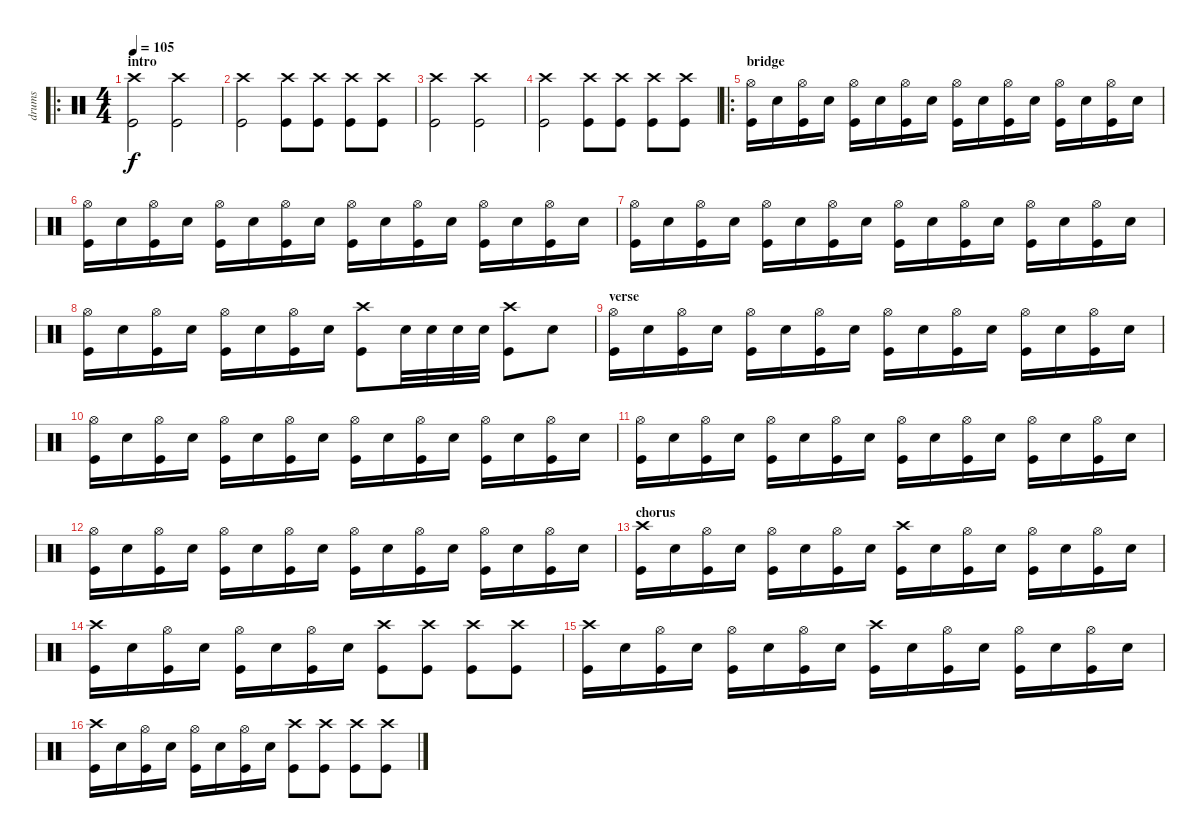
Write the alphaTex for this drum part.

\track ("drums" "drums") {instrument percussion}
\staff {score}
\articulation defaults
\ro
\ts (4 4)
\section ("" "intro")
\tempo 105
\clef neutral
\ks c
("Crash high (hit)" "Kick (hit)").2{dy f} ("Crash high (hit)" "Kick (hit)").2 |
("Crash high (hit)" "Kick (hit)").2 ("Crash high (hit)" "Kick (hit)").8 ("Crash high (hit)" "Kick (hit)").8 ("Crash high (hit)" "Kick (hit)").8 ("Crash high (hit)" "Kick (hit)").8 |
("Crash high (hit)" "Kick (hit)").2 ("Crash high (hit)" "Kick (hit)").2 |
("Crash high (hit)" "Kick (hit)").2 ("Crash high (hit)" "Kick (hit)").8 ("Crash high (hit)" "Kick (hit)").8 ("Crash high (hit)" "Kick (hit)").8 ("Crash high (hit)" "Kick (hit)").8 |
\ro
\section ("" "bridge")
("Hi-Hat (open)" "Kick (hit)").16 "Electric Snare (hit)".16 ("Hi-Hat (open)" "Kick (hit)").16 "Electric Snare (hit)".16 ("Hi-Hat (open)" "Kick (hit)").16 "Electric Snare (hit)".16 ("Hi-Hat (open)" "Kick (hit)").16 "Electric Snare (hit)".16 ("Hi-Hat (open)" "Kick (hit)").16 "Electric Snare (hit)".16 ("Hi-Hat (open)" "Kick (hit)").16 "Electric Snare (hit)".16 ("Hi-Hat (open)" "Kick (hit)").16 "Electric Snare (hit)".16 ("Hi-Hat (open)" "Kick (hit)").16 "Electric Snare (hit)".16 |
("Hi-Hat (open)" "Kick (hit)").16 "Electric Snare (hit)".16 ("Hi-Hat (open)" "Kick (hit)").16 "Electric Snare (hit)".16 ("Hi-Hat (open)" "Kick (hit)").16 "Electric Snare (hit)".16 ("Hi-Hat (open)" "Kick (hit)").16 "Electric Snare (hit)".16 ("Hi-Hat (open)" "Kick (hit)").16 "Electric Snare (hit)".16 ("Hi-Hat (open)" "Kick (hit)").16 "Electric Snare (hit)".16 ("Hi-Hat (open)" "Kick (hit)").16 "Electric Snare (hit)".16 ("Hi-Hat (open)" "Kick (hit)").16 "Electric Snare (hit)".16 |
("Hi-Hat (open)" "Kick (hit)").16 "Electric Snare (hit)".16 ("Hi-Hat (open)" "Kick (hit)").16 "Electric Snare (hit)".16 ("Hi-Hat (open)" "Kick (hit)").16 "Electric Snare (hit)".16 ("Hi-Hat (open)" "Kick (hit)").16 "Electric Snare (hit)".16 ("Hi-Hat (open)" "Kick (hit)").16 "Electric Snare (hit)".16 ("Hi-Hat (open)" "Kick (hit)").16 "Electric Snare (hit)".16 ("Hi-Hat (open)" "Kick (hit)").16 "Electric Snare (hit)".16 ("Hi-Hat (open)" "Kick (hit)").16 "Electric Snare (hit)".16 |
("Hi-Hat (open)" "Kick (hit)").16 "Electric Snare (hit)".16 ("Hi-Hat (open)" "Kick (hit)").16 "Electric Snare (hit)".16 ("Hi-Hat (open)" "Kick (hit)").16 "Electric Snare (hit)".16 ("Hi-Hat (open)" "Kick (hit)").16 "Electric Snare (hit)".16 ("Crash high (hit)" "Kick (hit)").8 "Electric Snare (hit)".32 "Electric Snare (hit)".32 "Electric Snare (hit)".32 "Electric Snare (hit)".32 ("Crash high (hit)" "Kick (hit)").8 "Electric Snare (hit)".8 |
\section ("" "verse")
("Hi-Hat (open)" "Kick (hit)").16 "Electric Snare (hit)".16 ("Hi-Hat (open)" "Kick (hit)").16 "Electric Snare (hit)".16 ("Hi-Hat (open)" "Kick (hit)").16 "Electric Snare (hit)".16 ("Hi-Hat (open)" "Kick (hit)").16 "Electric Snare (hit)".16 ("Hi-Hat (open)" "Kick (hit)").16 "Electric Snare (hit)".16 ("Hi-Hat (open)" "Kick (hit)").16 "Electric Snare (hit)".16 ("Hi-Hat (open)" "Kick (hit)").16 "Electric Snare (hit)".16 ("Hi-Hat (open)" "Kick (hit)").16 "Electric Snare (hit)".16 |
("Hi-Hat (open)" "Kick (hit)").16 "Electric Snare (hit)".16 ("Hi-Hat (open)" "Kick (hit)").16 "Electric Snare (hit)".16 ("Hi-Hat (open)" "Kick (hit)").16 "Electric Snare (hit)".16 ("Hi-Hat (open)" "Kick (hit)").16 "Electric Snare (hit)".16 ("Hi-Hat (open)" "Kick (hit)").16 "Electric Snare (hit)".16 ("Hi-Hat (open)" "Kick (hit)").16 "Electric Snare (hit)".16 ("Hi-Hat (open)" "Kick (hit)").16 "Electric Snare (hit)".16 ("Hi-Hat (open)" "Kick (hit)").16 "Electric Snare (hit)".16 |
("Hi-Hat (open)" "Kick (hit)").16 "Electric Snare (hit)".16 ("Hi-Hat (open)" "Kick (hit)").16 "Electric Snare (hit)".16 ("Hi-Hat (open)" "Kick (hit)").16 "Electric Snare (hit)".16 ("Hi-Hat (open)" "Kick (hit)").16 "Electric Snare (hit)".16 ("Hi-Hat (open)" "Kick (hit)").16 "Electric Snare (hit)".16 ("Hi-Hat (open)" "Kick (hit)").16 "Electric Snare (hit)".16 ("Hi-Hat (open)" "Kick (hit)").16 "Electric Snare (hit)".16 ("Hi-Hat (open)" "Kick (hit)").16 "Electric Snare (hit)".16 |
("Hi-Hat (open)" "Kick (hit)").16 "Electric Snare (hit)".16 ("Hi-Hat (open)" "Kick (hit)").16 "Electric Snare (hit)".16 ("Hi-Hat (open)" "Kick (hit)").16 "Electric Snare (hit)".16 ("Hi-Hat (open)" "Kick (hit)").16 "Electric Snare (hit)".16 ("Hi-Hat (open)" "Kick (hit)").16 "Electric Snare (hit)".16 ("Hi-Hat (open)" "Kick (hit)").16 "Electric Snare (hit)".16 ("Hi-Hat (open)" "Kick (hit)").16 "Electric Snare (hit)".16 ("Hi-Hat (open)" "Kick (hit)").16 "Electric Snare (hit)".16 |
\section ("" "chorus")
("Crash high (hit)" "Kick (hit)").16 "Electric Snare (hit)".16 ("Hi-Hat (open)" "Kick (hit)").16 "Electric Snare (hit)".16 ("Hi-Hat (open)" "Kick (hit)").16 "Electric Snare (hit)".16 ("Hi-Hat (open)" "Kick (hit)").16 "Electric Snare (hit)".16 ("Crash high (hit)" "Kick (hit)").16 "Electric Snare (hit)".16 ("Hi-Hat (open)" "Kick (hit)").16 "Electric Snare (hit)".16 ("Hi-Hat (open)" "Kick (hit)").16 "Electric Snare (hit)".16 ("Hi-Hat (open)" "Kick (hit)").16 "Electric Snare (hit)".16 |
("Crash high (hit)" "Kick (hit)").16 "Electric Snare (hit)".16 ("Hi-Hat (open)" "Kick (hit)").16 "Electric Snare (hit)".16 ("Hi-Hat (open)" "Kick (hit)").16 "Electric Snare (hit)".16 ("Hi-Hat (open)" "Kick (hit)").16 "Electric Snare (hit)".16 ("Crash high (hit)" "Kick (hit)").8 ("Crash high (hit)" "Kick (hit)").8 ("Crash high (hit)" "Kick (hit)").8 ("Crash high (hit)" "Kick (hit)").8 |
("Crash high (hit)" "Kick (hit)").16 "Electric Snare (hit)".16 ("Hi-Hat (open)" "Kick (hit)").16 "Electric Snare (hit)".16 ("Hi-Hat (open)" "Kick (hit)").16 "Electric Snare (hit)".16 ("Hi-Hat (open)" "Kick (hit)").16 "Electric Snare (hit)".16 ("Crash high (hit)" "Kick (hit)").16 "Electric Snare (hit)".16 ("Hi-Hat (open)" "Kick (hit)").16 "Electric Snare (hit)".16 ("Hi-Hat (open)" "Kick (hit)").16 "Electric Snare (hit)".16 ("Hi-Hat (open)" "Kick (hit)").16 "Electric Snare (hit)".16 |
("Crash high (hit)" "Kick (hit)").16 "Electric Snare (hit)".16 ("Hi-Hat (open)" "Kick (hit)").16 "Electric Snare (hit)".16 ("Hi-Hat (open)" "Kick (hit)").16 "Electric Snare (hit)".16 ("Hi-Hat (open)" "Kick (hit)").16 "Electric Snare (hit)".16 ("Crash high (hit)" "Kick (hit)").8 ("Crash high (hit)" "Kick (hit)").8 ("Crash high (hit)" "Kick (hit)").8 ("Crash high (hit)" "Kick (hit)").8
